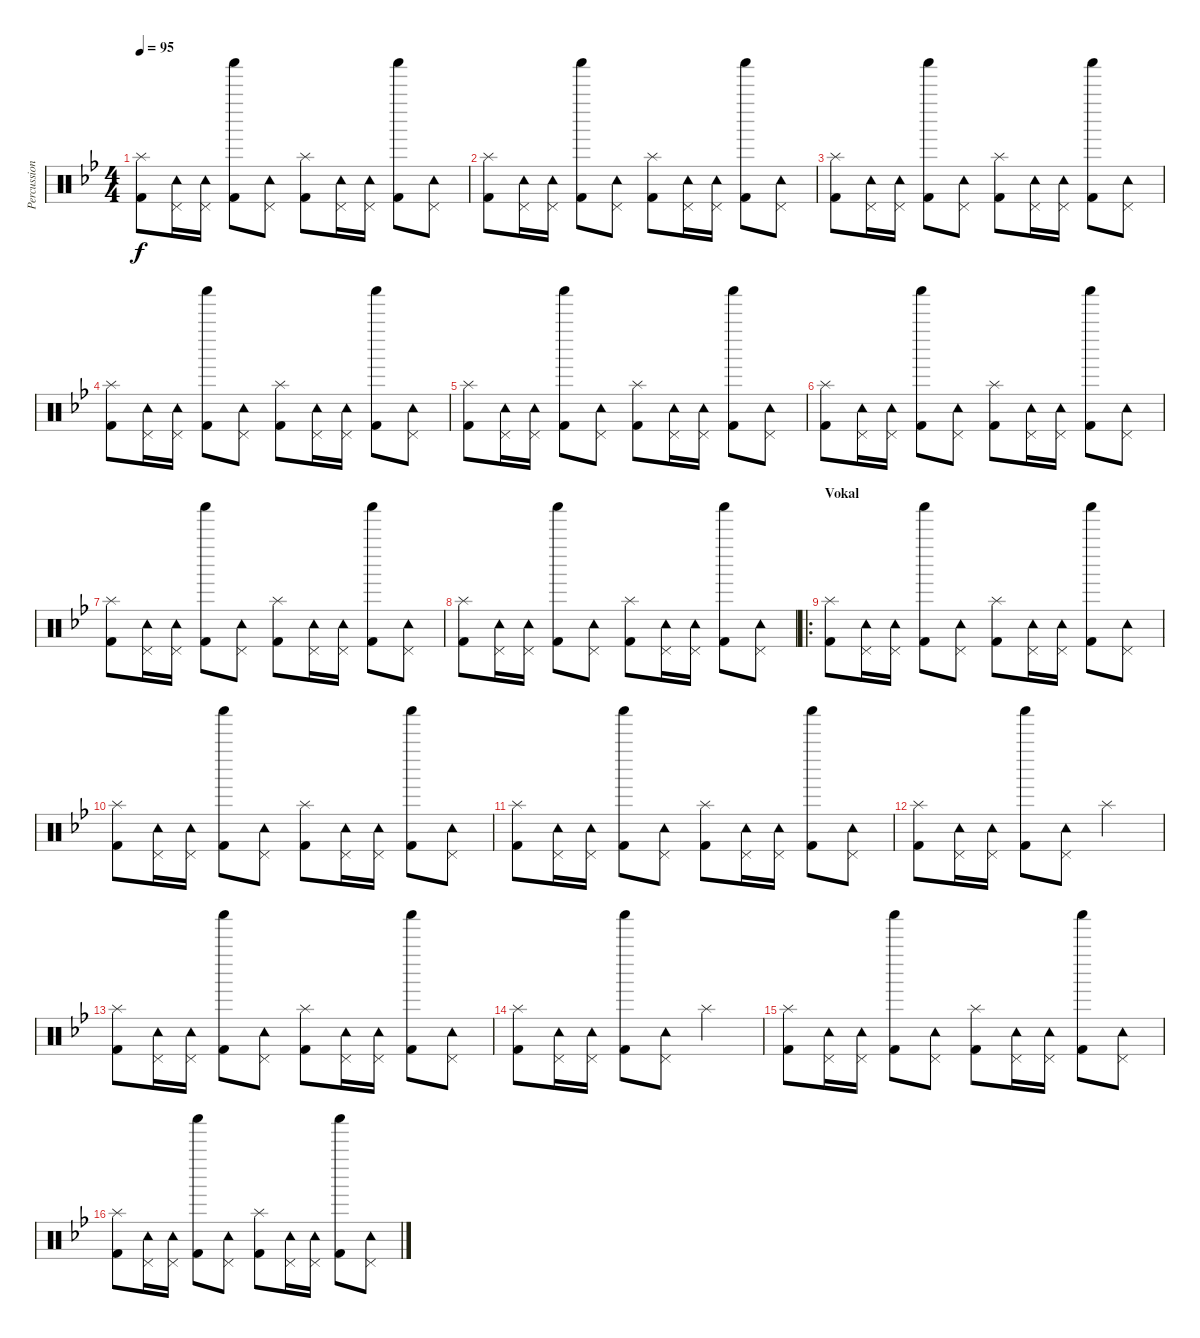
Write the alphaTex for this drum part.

\track ("Percussion" "Percussion") {instrument percussion}
\staff {score}
\articulation defaults
\ts (4 4)
\tempo 95
\clef neutral
\ks bb
("Kick (hit) 2" "Splash (hit)").8{dy f} ("Tambourine (hit)" "Pedal Hi-Hat (hit)").16 ("Tambourine (hit)" "Pedal Hi-Hat (hit)").16 ("Kick (hit) 2" "Shaker (hit)").8 ("Tambourine (hit)" "Pedal Hi-Hat (hit)").8 ("Kick (hit) 2" "Splash (hit)").8 ("Tambourine (hit)" "Pedal Hi-Hat (hit)").16 ("Tambourine (hit)" "Pedal Hi-Hat (hit)").16 ("Kick (hit) 2" "Shaker (hit)").8 ("Tambourine (hit)" "Pedal Hi-Hat (hit)").8 |
("Kick (hit) 2" "Splash (hit)").8 ("Tambourine (hit)" "Pedal Hi-Hat (hit)").16 ("Tambourine (hit)" "Pedal Hi-Hat (hit)").16 ("Kick (hit) 2" "Shaker (hit)").8 ("Tambourine (hit)" "Pedal Hi-Hat (hit)").8 ("Kick (hit) 2" "Splash (hit)").8 ("Tambourine (hit)" "Pedal Hi-Hat (hit)").16 ("Tambourine (hit)" "Pedal Hi-Hat (hit)").16 ("Kick (hit) 2" "Shaker (hit)").8 ("Tambourine (hit)" "Pedal Hi-Hat (hit)").8 |
("Kick (hit) 2" "Splash (hit)").8 ("Tambourine (hit)" "Pedal Hi-Hat (hit)").16 ("Tambourine (hit)" "Pedal Hi-Hat (hit)").16 ("Kick (hit) 2" "Shaker (hit)").8 ("Tambourine (hit)" "Pedal Hi-Hat (hit)").8 ("Kick (hit) 2" "Splash (hit)").8 ("Tambourine (hit)" "Pedal Hi-Hat (hit)").16 ("Tambourine (hit)" "Pedal Hi-Hat (hit)").16 ("Kick (hit) 2" "Shaker (hit)").8 ("Tambourine (hit)" "Pedal Hi-Hat (hit)").8 |
("Kick (hit) 2" "Splash (hit)").8 ("Tambourine (hit)" "Pedal Hi-Hat (hit)").16 ("Tambourine (hit)" "Pedal Hi-Hat (hit)").16 ("Kick (hit) 2" "Shaker (hit)").8 ("Tambourine (hit)" "Pedal Hi-Hat (hit)").8 ("Kick (hit) 2" "Splash (hit)").8 ("Tambourine (hit)" "Pedal Hi-Hat (hit)").16 ("Tambourine (hit)" "Pedal Hi-Hat (hit)").16 ("Kick (hit) 2" "Shaker (hit)").8 ("Tambourine (hit)" "Pedal Hi-Hat (hit)").8 |
("Kick (hit) 2" "Splash (hit)").8 ("Tambourine (hit)" "Pedal Hi-Hat (hit)").16 ("Tambourine (hit)" "Pedal Hi-Hat (hit)").16 ("Kick (hit) 2" "Shaker (hit)").8 ("Tambourine (hit)" "Pedal Hi-Hat (hit)").8 ("Kick (hit) 2" "Splash (hit)").8 ("Tambourine (hit)" "Pedal Hi-Hat (hit)").16 ("Tambourine (hit)" "Pedal Hi-Hat (hit)").16 ("Kick (hit) 2" "Shaker (hit)").8 ("Tambourine (hit)" "Pedal Hi-Hat (hit)").8 |
("Kick (hit) 2" "Splash (hit)").8 ("Tambourine (hit)" "Pedal Hi-Hat (hit)").16 ("Tambourine (hit)" "Pedal Hi-Hat (hit)").16 ("Kick (hit) 2" "Shaker (hit)").8 ("Tambourine (hit)" "Pedal Hi-Hat (hit)").8 ("Kick (hit) 2" "Splash (hit)").8 ("Tambourine (hit)" "Pedal Hi-Hat (hit)").16 ("Tambourine (hit)" "Pedal Hi-Hat (hit)").16 ("Kick (hit) 2" "Shaker (hit)").8 ("Tambourine (hit)" "Pedal Hi-Hat (hit)").8 |
("Kick (hit) 2" "Splash (hit)").8 ("Tambourine (hit)" "Pedal Hi-Hat (hit)").16 ("Tambourine (hit)" "Pedal Hi-Hat (hit)").16 ("Kick (hit) 2" "Shaker (hit)").8 ("Tambourine (hit)" "Pedal Hi-Hat (hit)").8 ("Kick (hit) 2" "Splash (hit)").8 ("Tambourine (hit)" "Pedal Hi-Hat (hit)").16 ("Tambourine (hit)" "Pedal Hi-Hat (hit)").16 ("Kick (hit) 2" "Shaker (hit)").8 ("Tambourine (hit)" "Pedal Hi-Hat (hit)").8 |
("Kick (hit) 2" "Splash (hit)").8 ("Tambourine (hit)" "Pedal Hi-Hat (hit)").16 ("Tambourine (hit)" "Pedal Hi-Hat (hit)").16 ("Kick (hit) 2" "Shaker (hit)").8 ("Tambourine (hit)" "Pedal Hi-Hat (hit)").8 ("Kick (hit) 2" "Splash (hit)").8 ("Tambourine (hit)" "Pedal Hi-Hat (hit)").16 ("Tambourine (hit)" "Pedal Hi-Hat (hit)").16 ("Kick (hit) 2" "Shaker (hit)").8 ("Tambourine (hit)" "Pedal Hi-Hat (hit)").8 |
\ro
\section ("" "Vokal")
("Kick (hit) 2" "Splash (hit)").8 ("Tambourine (hit)" "Pedal Hi-Hat (hit)").16 ("Tambourine (hit)" "Pedal Hi-Hat (hit)").16 ("Kick (hit) 2" "Shaker (hit)").8 ("Tambourine (hit)" "Pedal Hi-Hat (hit)").8 ("Kick (hit) 2" "Splash (hit)").8 ("Tambourine (hit)" "Pedal Hi-Hat (hit)").16 ("Tambourine (hit)" "Pedal Hi-Hat (hit)").16 ("Kick (hit) 2" "Shaker (hit)").8 ("Tambourine (hit)" "Pedal Hi-Hat (hit)").8 |
("Kick (hit) 2" "Splash (hit)").8 ("Tambourine (hit)" "Pedal Hi-Hat (hit)").16 ("Tambourine (hit)" "Pedal Hi-Hat (hit)").16 ("Kick (hit) 2" "Shaker (hit)").8 ("Tambourine (hit)" "Pedal Hi-Hat (hit)").8 ("Kick (hit) 2" "Splash (hit)").8 ("Tambourine (hit)" "Pedal Hi-Hat (hit)").16 ("Tambourine (hit)" "Pedal Hi-Hat (hit)").16 ("Kick (hit) 2" "Shaker (hit)").8 ("Tambourine (hit)" "Pedal Hi-Hat (hit)").8 |
("Kick (hit) 2" "Splash (hit)").8 ("Tambourine (hit)" "Pedal Hi-Hat (hit)").16 ("Tambourine (hit)" "Pedal Hi-Hat (hit)").16 ("Kick (hit) 2" "Shaker (hit)").8 ("Tambourine (hit)" "Pedal Hi-Hat (hit)").8 ("Kick (hit) 2" "Splash (hit)").8 ("Tambourine (hit)" "Pedal Hi-Hat (hit)").16 ("Tambourine (hit)" "Pedal Hi-Hat (hit)").16 ("Kick (hit) 2" "Shaker (hit)").8 ("Tambourine (hit)" "Pedal Hi-Hat (hit)").8 |
("Kick (hit) 2" "Splash (hit)").8 ("Tambourine (hit)" "Pedal Hi-Hat (hit)").16 ("Tambourine (hit)" "Pedal Hi-Hat (hit)").16 ("Kick (hit) 2" "Shaker (hit)").8 ("Tambourine (hit)" "Pedal Hi-Hat (hit)").8 "Splash (hit)".2 |
("Kick (hit) 2" "Splash (hit)").8 ("Tambourine (hit)" "Pedal Hi-Hat (hit)").16 ("Tambourine (hit)" "Pedal Hi-Hat (hit)").16 ("Kick (hit) 2" "Shaker (hit)").8 ("Tambourine (hit)" "Pedal Hi-Hat (hit)").8 ("Kick (hit) 2" "Splash (hit)").8 ("Tambourine (hit)" "Pedal Hi-Hat (hit)").16 ("Tambourine (hit)" "Pedal Hi-Hat (hit)").16 ("Kick (hit) 2" "Shaker (hit)").8 ("Tambourine (hit)" "Pedal Hi-Hat (hit)").8 |
("Kick (hit) 2" "Splash (hit)").8 ("Tambourine (hit)" "Pedal Hi-Hat (hit)").16 ("Tambourine (hit)" "Pedal Hi-Hat (hit)").16 ("Kick (hit) 2" "Shaker (hit)").8 ("Tambourine (hit)" "Pedal Hi-Hat (hit)").8 "Splash (hit)".2 |
("Kick (hit) 2" "Splash (hit)").8 ("Tambourine (hit)" "Pedal Hi-Hat (hit)").16 ("Tambourine (hit)" "Pedal Hi-Hat (hit)").16 ("Kick (hit) 2" "Shaker (hit)").8 ("Tambourine (hit)" "Pedal Hi-Hat (hit)").8 ("Kick (hit) 2" "Splash (hit)").8 ("Tambourine (hit)" "Pedal Hi-Hat (hit)").16 ("Tambourine (hit)" "Pedal Hi-Hat (hit)").16 ("Kick (hit) 2" "Shaker (hit)").8 ("Tambourine (hit)" "Pedal Hi-Hat (hit)").8 |
("Kick (hit) 2" "Splash (hit)").8 ("Tambourine (hit)" "Pedal Hi-Hat (hit)").16 ("Tambourine (hit)" "Pedal Hi-Hat (hit)").16 ("Kick (hit) 2" "Shaker (hit)").8 ("Tambourine (hit)" "Pedal Hi-Hat (hit)").8 ("Kick (hit) 2" "Splash (hit)").8 ("Tambourine (hit)" "Pedal Hi-Hat (hit)").16 ("Tambourine (hit)" "Pedal Hi-Hat (hit)").16 ("Kick (hit) 2" "Shaker (hit)").8 ("Tambourine (hit)" "Pedal Hi-Hat (hit)").8
